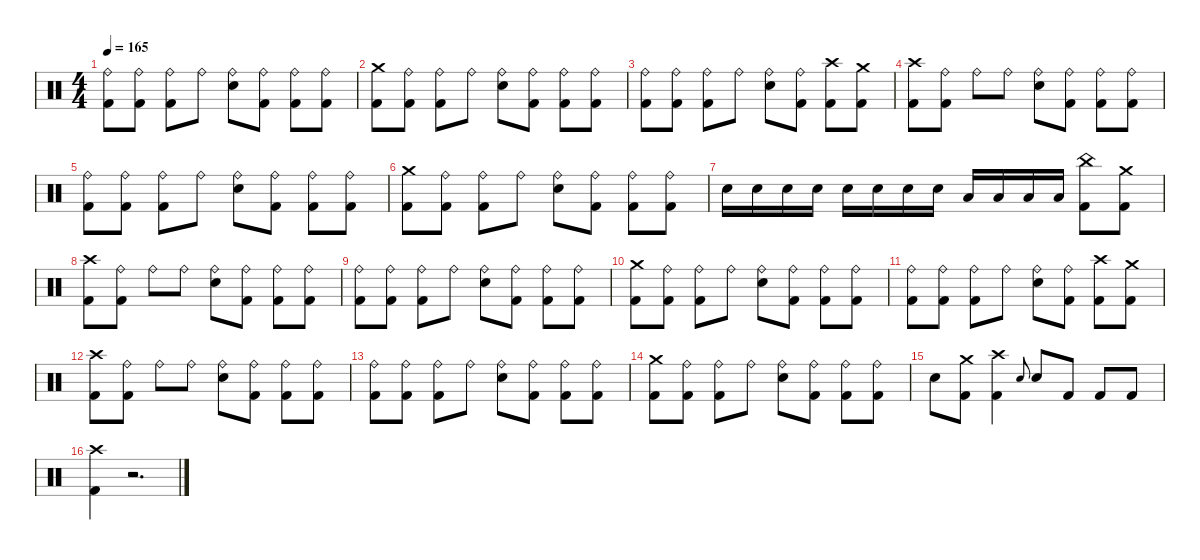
\defaultSystemsLayout 4
\hideDynamics
\bracketExtendMode nobrackets
\singleTrackTrackNamePolicy hidden
\multiTrackTrackNamePolicy hidden
\firstSystemTrackNameMode fullname
\firstSystemTrackNameOrientation horizontal
\otherSystemsTrackNameOrientation horizontal
\track ("Percussions" "drm.") {instrument percussion}
\staff {score}
\articulation defaults
\ts (4 4)
\tempo 165
\clef neutral
\ks c
("Ride (bell)" "Kick (hit) 2").8{dy f beam Down} ("Ride (bell)" "Kick (hit) 2").8{dy mp beam Down} ("Ride (bell)" "Kick (hit) 2").8{dy f beam Down} "Ride (bell)".8{dy mp beam Down} ("Ride (bell)" "Snare (hit) 2").8{dy f beam Down} ("Ride (bell)" "Kick (hit) 2").8{dy mp beam Down} ("Ride (bell)" "Kick (hit) 2").8{dy f beam Down} ("Ride (bell)" "Kick (hit) 2").8{dy mp beam Down} |
("Crash medium (hit)" "Kick (hit) 2").8{dy f beam Down} ("Ride (bell)" "Kick (hit) 2").8{dy mp beam Down} ("Ride (bell)" "Kick (hit) 2").8{dy f beam Down} "Ride (bell)".8{dy mp beam Down} ("Ride (bell)" "Snare (hit) 2").8{dy f beam Down} ("Ride (bell)" "Kick (hit) 2").8{dy mp beam Down} ("Ride (bell)" "Kick (hit) 2").8{dy f beam Down} ("Ride (bell)" "Kick (hit) 2").8{dy mp beam Down} |
("Ride (bell)" "Kick (hit) 2").8{dy f beam Down} ("Ride (bell)" "Kick (hit) 2").8{dy mp beam Down} ("Ride (bell)" "Kick (hit) 2").8{dy f beam Down} "Ride (bell)".8{dy mp beam Down} ("Ride (bell)" "Snare (hit) 2").8{dy f beam Down} ("Ride (bell)" "Kick (hit) 2").8{dy mp beam Down} ("Crash high (hit)" "Kick (hit) 2").8{dy f beam Down} ("Crash medium (hit)" "Kick (hit) 2").8{beam Down} |
("Crash high (hit)" "Kick (hit) 2").8{beam Down} ("Ride (bell)" "Kick (hit) 2").8{dy mp beam Down} "Ride (bell)".8{dy f beam Down} "Ride (bell)".8{dy mp beam Down} ("Ride (bell)" "Snare (hit) 2").8{dy f beam Down} ("Ride (bell)" "Kick (hit) 2").8{dy mp beam Down} ("Ride (bell)" "Kick (hit) 2").8{dy f beam Down} ("Ride (bell)" "Kick (hit) 2").8{dy mp beam Down} |
("Ride (bell)" "Kick (hit) 2").8{dy f beam Down} ("Ride (bell)" "Kick (hit) 2").8{dy mp beam Down} ("Ride (bell)" "Kick (hit) 2").8{dy f beam Down} "Ride (bell)".8{dy mp beam Down} ("Ride (bell)" "Snare (hit) 2").8{dy f beam Down} ("Ride (bell)" "Kick (hit) 2").8{dy mp beam Down} ("Ride (bell)" "Kick (hit) 2").8{dy f beam Down} ("Ride (bell)" "Kick (hit) 2").8{dy mp beam Down} |
("Crash medium (hit)" "Kick (hit) 2").8{dy f beam Down} ("Ride (bell)" "Kick (hit) 2").8{dy mp beam Down} ("Ride (bell)" "Kick (hit) 2").8{dy f beam Down} "Ride (bell)".8{dy mp beam Down} ("Ride (bell)" "Snare (hit) 2").8{dy f beam Down} ("Ride (bell)" "Kick (hit) 2").8{dy mp beam Down} ("Ride (bell)" "Kick (hit) 2").8{dy f beam Down} ("Ride (bell)" "Kick (hit) 2").8{dy mp beam Down} |
"Snare (hit) 2".16{dy f beam Down} "Snare (hit) 2".16{beam Down} "Snare (hit) 2".16{beam Down} "Snare (hit) 2".16{beam Down} "Snare (hit) 2".16{beam Down} "Snare (hit) 2".16{beam Down} "Snare (hit) 2".16{beam Down} "Snare (hit) 2".16{beam Down} "Low Tom (hit)".16{beam Up} "Low Tom (hit)".16{beam Up} "Low Tom (hit)".16{beam Up} "Low Tom (hit)".16{beam Up} ("China (hit)" "Kick (hit) 2").8{beam Down} ("Crash medium (hit)" "Kick (hit) 2").8{beam Down} |
("Crash high (hit)" "Kick (hit) 2").8{beam Down} ("Ride (bell)" "Kick (hit) 2").8{dy mp beam Down} "Ride (bell)".8{dy f beam Down} "Ride (bell)".8{dy mp beam Down} ("Ride (bell)" "Snare (hit) 2").8{dy f beam Down} ("Ride (bell)" "Kick (hit) 2").8{dy mp beam Down} ("Ride (bell)" "Kick (hit) 2").8{dy f beam Down} ("Ride (bell)" "Kick (hit) 2").8{dy mp beam Down} |
("Ride (bell)" "Kick (hit) 2").8{dy f beam Down} ("Ride (bell)" "Kick (hit) 2").8{dy mp beam Down} ("Ride (bell)" "Kick (hit) 2").8{dy f beam Down} "Ride (bell)".8{dy mp beam Down} ("Ride (bell)" "Snare (hit) 2").8{dy f beam Down} ("Ride (bell)" "Kick (hit) 2").8{dy mp beam Down} ("Ride (bell)" "Kick (hit) 2").8{dy f beam Down} ("Ride (bell)" "Kick (hit) 2").8{dy mp beam Down} |
("Crash medium (hit)" "Kick (hit) 2").8{dy f beam Down} ("Ride (bell)" "Kick (hit) 2").8{dy mp beam Down} ("Ride (bell)" "Kick (hit) 2").8{dy f beam Down} "Ride (bell)".8{dy mp beam Down} ("Ride (bell)" "Snare (hit) 2").8{dy f beam Down} ("Ride (bell)" "Kick (hit) 2").8{dy mp beam Down} ("Ride (bell)" "Kick (hit) 2").8{dy f beam Down} ("Ride (bell)" "Kick (hit) 2").8{dy mp beam Down} |
("Ride (bell)" "Kick (hit) 2").8{dy f beam Down} ("Ride (bell)" "Kick (hit) 2").8{dy mp beam Down} ("Ride (bell)" "Kick (hit) 2").8{dy f beam Down} "Ride (bell)".8{dy mp beam Down} ("Ride (bell)" "Snare (hit) 2").8{dy f beam Down} ("Ride (bell)" "Kick (hit) 2").8{dy mp beam Down} ("Crash high (hit)" "Kick (hit) 2").8{dy f beam Down} ("Crash medium (hit)" "Kick (hit) 2").8{beam Down} |
("Crash high (hit)" "Kick (hit) 2").8{beam Down} ("Ride (bell)" "Kick (hit) 2").8{dy mp beam Down} "Ride (bell)".8{dy f beam Down} "Ride (bell)".8{dy mp beam Down} ("Ride (bell)" "Snare (hit) 2").8{dy f beam Down} ("Ride (bell)" "Kick (hit) 2").8{dy mp beam Down} ("Ride (bell)" "Kick (hit) 2").8{dy f beam Down} ("Ride (bell)" "Kick (hit) 2").8{dy mp beam Down} |
("Ride (bell)" "Kick (hit) 2").8{dy f beam Down} ("Ride (bell)" "Kick (hit) 2").8{dy mp beam Down} ("Ride (bell)" "Kick (hit) 2").8{dy f beam Down} "Ride (bell)".8{dy mp beam Down} ("Ride (bell)" "Snare (hit) 2").8{dy f beam Down} ("Ride (bell)" "Kick (hit) 2").8{dy mp beam Down} ("Ride (bell)" "Kick (hit) 2").8{dy f beam Down} ("Ride (bell)" "Kick (hit) 2").8{dy mp beam Down} |
("Crash medium (hit)" "Kick (hit) 2").8{dy f beam Down} ("Ride (bell)" "Kick (hit) 2").8{dy mp beam Down} ("Ride (bell)" "Kick (hit) 2").8{dy f beam Down} "Ride (bell)".8{dy mp beam Down} ("Ride (bell)" "Snare (hit) 2").8{dy f beam Down} ("Ride (bell)" "Kick (hit) 2").8{dy mp beam Down} ("Ride (bell)" "Kick (hit) 2").8{dy f beam Down} ("Ride (bell)" "Kick (hit) 2").8{dy mp beam Down} |
"Snare (hit) 2".8{dy f beam Down} ("Crash medium (hit)" "Kick (hit) 2").8{beam Down} ("Crash high (hit)" "Kick (hit) 2").4{beam Down} "Electric Snare (hit)".8{gr onbeat dy mf beam Up} "Snare (hit) 2".8{dy f beam Up} "Kick (hit) 2".8{beam Up} "Kick (hit) 2".8{beam Up} "Kick (hit) 2".8{beam Up} |
("Crash high (hit)" "Kick (hit) 2").4{beam Down} r.2{d beam Down}
